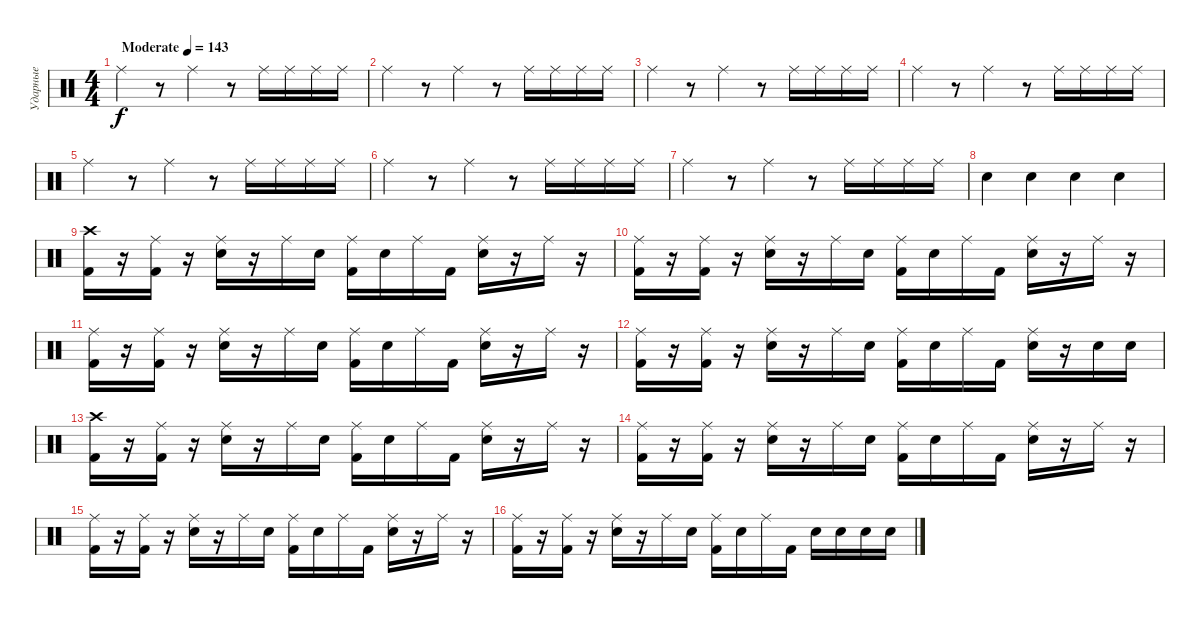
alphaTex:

\track ("Ударные" "Ударные") {instrument percussion}
\staff {score}
\articulation defaults
\ts (4 4)
\tempo (143 "Moderate")
\clef neutral
\ks c "Ride (middle)".4{dy f}
r.8 "Ride (middle)".4 r.8 "Ride (middle)".16 "Ride (middle)".16 "Ride (middle)".16 "Ride (middle)".16 |
"Ride (middle)".4 r.8 "Ride (middle)".4 r.8 "Ride (middle)".16 "Ride (middle)".16 "Ride (middle)".16 "Ride (middle)".16 |
"Ride (middle)".4 r.8 "Ride (middle)".4 r.8 "Ride (middle)".16 "Ride (middle)".16 "Ride (middle)".16 "Ride (middle)".16 |
"Ride (middle)".4 r.8 "Ride (middle)".4 r.8 "Ride (middle)".16 "Ride (middle)".16 "Ride (middle)".16 "Ride (middle)".16 |
"Ride (middle)".4 r.8 "Ride (middle)".4 r.8 "Ride (middle)".16 "Ride (middle)".16 "Ride (middle)".16 "Ride (middle)".16 |
"Ride (middle)".4 r.8 "Ride (middle)".4 r.8 "Ride (middle)".16 "Ride (middle)".16 "Ride (middle)".16 "Ride (middle)".16 |
"Ride (middle)".4 r.8 "Ride (middle)".4 r.8 "Ride (middle)".16 "Ride (middle)".16 "Ride (middle)".16 "Ride (middle)".16 |
"Electric Snare (hit)".4 "Electric Snare (hit)".4 "Electric Snare (hit)".4 "Electric Snare (hit)".4 |
("Kick (hit) 2" "Crash high (hit)").16 r.16 ("Kick (hit) 2" "Ride (middle)").16 r.16 ("Electric Snare (hit)" "Ride (middle)").16 r.16 "Ride (middle)".16 "Electric Snare (hit)".16 ("Kick (hit) 2" "Ride (middle)").16 "Electric Snare (hit)".16 "Ride (middle)".16 "Kick (hit) 2".16 ("Electric Snare (hit)" "Ride (middle)").16 r.16 "Ride (middle)".16 r.16 |
("Kick (hit) 2" "Ride (middle)").16 r.16 ("Kick (hit) 2" "Ride (middle)").16 r.16 ("Electric Snare (hit)" "Ride (middle)").16 r.16 "Ride (middle)".16 "Electric Snare (hit)".16 ("Kick (hit) 2" "Ride (middle)").16 "Electric Snare (hit)".16 "Ride (middle)".16 "Kick (hit) 2".16 ("Electric Snare (hit)" "Ride (middle)").16 r.16 "Ride (middle)".16 r.16 |
("Kick (hit) 2" "Ride (middle)").16 r.16 ("Kick (hit) 2" "Ride (middle)").16 r.16 ("Electric Snare (hit)" "Ride (middle)").16 r.16 "Ride (middle)".16 "Electric Snare (hit)".16 ("Kick (hit) 2" "Ride (middle)").16 "Electric Snare (hit)".16 "Ride (middle)".16 "Kick (hit) 2".16 ("Electric Snare (hit)" "Ride (middle)").16 r.16 "Ride (middle)".16 r.16 |
("Kick (hit) 2" "Ride (middle)").16 r.16 ("Kick (hit) 2" "Ride (middle)").16 r.16 ("Electric Snare (hit)" "Ride (middle)").16 r.16 "Ride (middle)".16 "Electric Snare (hit)".16 ("Kick (hit) 2" "Ride (middle)").16 "Electric Snare (hit)".16 "Ride (middle)".16 "Kick (hit) 2".16 ("Electric Snare (hit)" "Ride (middle)").16 r.16 "Electric Snare (hit)".16 "Electric Snare (hit)".16 |
("Kick (hit) 2" "Crash high (hit)").16 r.16 ("Kick (hit) 2" "Ride (middle)").16 r.16 ("Electric Snare (hit)" "Ride (middle)").16 r.16 "Ride (middle)".16 "Electric Snare (hit)".16 ("Kick (hit) 2" "Ride (middle)").16 "Electric Snare (hit)".16 "Ride (middle)".16 "Kick (hit) 2".16 ("Electric Snare (hit)" "Ride (middle)").16 r.16 "Ride (middle)".16 r.16 |
("Kick (hit) 2" "Ride (middle)").16 r.16 ("Kick (hit) 2" "Ride (middle)").16 r.16 ("Electric Snare (hit)" "Ride (middle)").16 r.16 "Ride (middle)".16 "Electric Snare (hit)".16 ("Kick (hit) 2" "Ride (middle)").16 "Electric Snare (hit)".16 "Ride (middle)".16 "Kick (hit) 2".16 ("Electric Snare (hit)" "Ride (middle)").16 r.16 "Ride (middle)".16 r.16 |
("Kick (hit) 2" "Ride (middle)").16 r.16 ("Kick (hit) 2" "Ride (middle)").16 r.16 ("Electric Snare (hit)" "Ride (middle)").16 r.16 "Ride (middle)".16 "Electric Snare (hit)".16 ("Kick (hit) 2" "Ride (middle)").16 "Electric Snare (hit)".16 "Ride (middle)".16 "Kick (hit) 2".16 ("Electric Snare (hit)" "Ride (middle)").16 r.16 "Ride (middle)".16 r.16 |
("Kick (hit) 2" "Ride (middle)").16 r.16 ("Kick (hit) 2" "Ride (middle)").16 r.16 ("Electric Snare (hit)" "Ride (middle)").16 r.16 "Ride (middle)".16 "Electric Snare (hit)".16 ("Kick (hit) 2" "Ride (middle)").16 "Electric Snare (hit)".16 "Ride (middle)".16 "Kick (hit) 2".16 "Electric Snare (hit)".16 "Electric Snare (hit)".16 "Electric Snare (hit)".16 "Electric Snare (hit)".16
